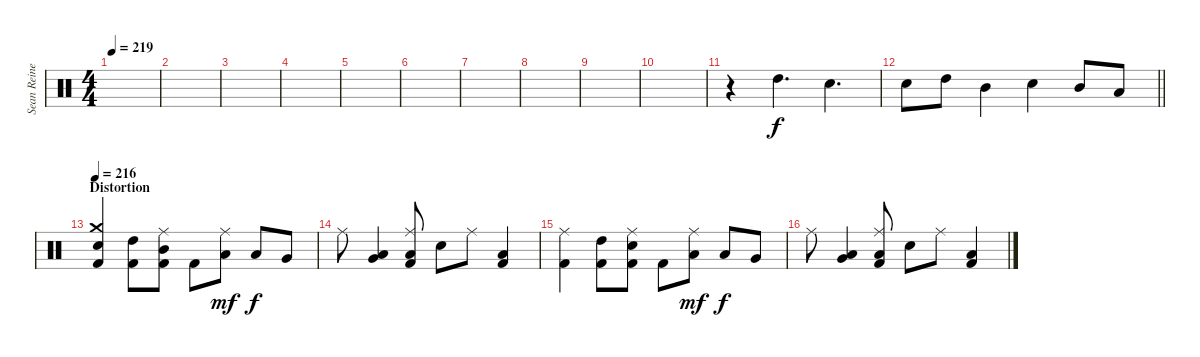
\track ("Sean Reinert" "Sean Reine") {instrument percussion}
\staff {score}
\articulation defaults
\ts (4 4)
\tempo 219
\clef neutral
\ks c
|
|
|
|
|
|
|
|
|
|
r.4 "High Tom (hit)".4{d} "Snare (hit) 2".4{d} |
\barLineRight lightlight "Snare (hit) 2".8 "High Tom (hit)".8 "Mid Tom (hit)".4 "Snare (hit) 2".4 "Mid Tom (hit)".8 "Low Tom (hit)".8
|
\section ("" "Distortion")
\tempo 216
("Crash medium (hit)" "Snare (hit) 2" "Kick (hit) 2").4 ("High Tom (hit)" "Kick (hit) 2").8 ("Ride (middle)" "Mid Tom (hit)" "Kick (hit) 2").8 "Kick (hit) 2".8 ("Ride (middle)" "Low Tom (hit)").8{dy mf} "Low Tom (hit)".8{dy f} "Very Low Tom (hit)".8 |
"Ride (middle)".8 ("Low Floor Tom (hit)" "Very Low Tom (hit)").4 ("Ride (middle)" "Low Floor Tom (hit)" "Kick (hit) 2").8 "Snare (hit) 2".8 "Ride (middle)".8 ("Low Floor Tom (hit)" "Kick (hit) 2").4 |
("Ride (middle)" "Kick (hit) 2").4 ("High Tom (hit)" "Kick (hit) 2").8 ("Ride (middle)" "Snare (hit) 2" "Kick (hit) 2").8 "Kick (hit) 2".8 ("Ride (middle)" "Low Tom (hit)").8{dy mf} "Low Tom (hit)".8{dy f} "Very Low Tom (hit)".8 |
"Ride (middle)".8 ("Low Floor Tom (hit)" "Very Low Tom (hit)").4 ("Ride (middle)" "Low Floor Tom (hit)" "Kick (hit) 2").8 "Snare (hit) 2".8 "Ride (middle)".8 ("Low Floor Tom (hit)" "Kick (hit) 2").4
